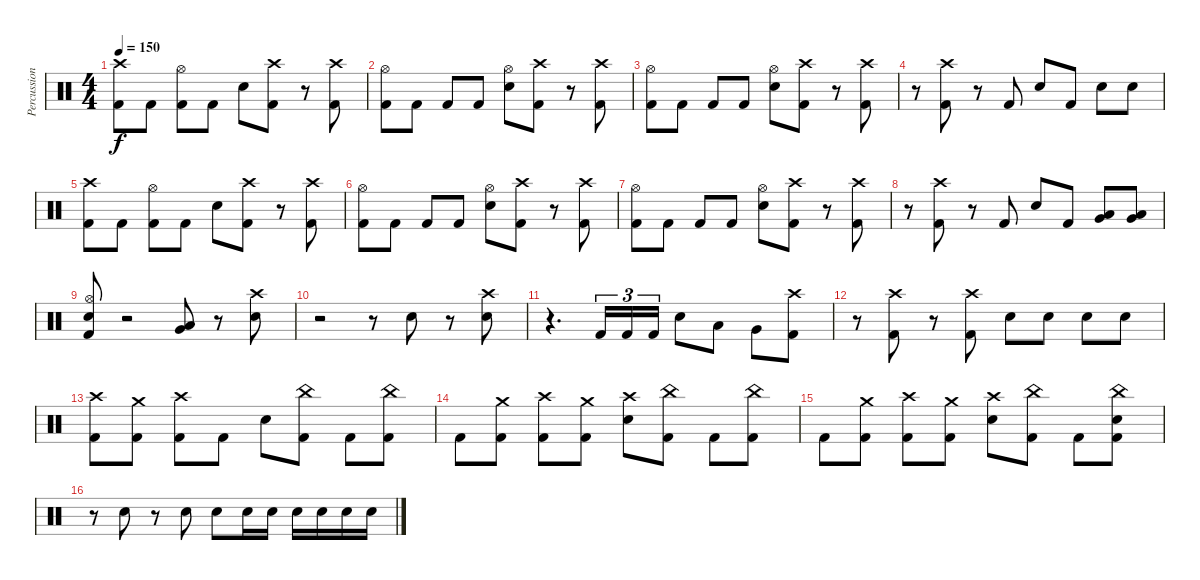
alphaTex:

\track ("Percussion" "Percussion") {instrument percussion}
\staff {score}
\articulation defaults
\ts (4 4)
\tempo 150
\clef neutral
\ks c
("Crash high (hit)" "Kick (hit) 2").8{dy f} "Kick (hit) 2".8 ("Hi-Hat (open)" "Kick (hit) 2").8 "Kick (hit) 2".8 "Snare (hit) 2".8 ("Crash high (hit)" "Kick (hit) 2").8 r.8 ("Crash high (hit)" "Kick (hit) 2").8 |
("Hi-Hat (open)" "Kick (hit) 2").8 "Kick (hit) 2".8 "Kick (hit) 2".8 "Kick (hit) 2".8 ("Hi-Hat (open)" "Snare (hit) 2").8 ("Crash high (hit)" "Kick (hit) 2").8 r.8 ("Crash high (hit)" "Kick (hit) 2").8 |
("Hi-Hat (open)" "Kick (hit) 2").8 "Kick (hit) 2".8 "Kick (hit) 2".8 "Kick (hit) 2".8 ("Hi-Hat (open)" "Snare (hit) 2").8 ("Crash high (hit)" "Kick (hit) 2").8 r.8 ("Crash high (hit)" "Kick (hit) 2").8 |
r.8 ("Crash high (hit)" "Kick (hit) 2").8 r.8 "Kick (hit) 2".8 "Snare (hit) 2".8 "Kick (hit) 2".8 "Snare (hit) 2".8 "Snare (hit) 2".8 |
("Crash high (hit)" "Kick (hit) 2").8 "Kick (hit) 2".8 ("Hi-Hat (open)" "Kick (hit) 2").8 "Kick (hit) 2".8 "Snare (hit) 2".8 ("Crash high (hit)" "Kick (hit) 2").8 r.8 ("Crash high (hit)" "Kick (hit) 2").8 |
("Hi-Hat (open)" "Kick (hit) 2").8 "Kick (hit) 2".8 "Kick (hit) 2".8 "Kick (hit) 2".8 ("Hi-Hat (open)" "Snare (hit) 2").8 ("Crash high (hit)" "Kick (hit) 2").8 r.8 ("Crash high (hit)" "Kick (hit) 2").8 |
("Hi-Hat (open)" "Kick (hit) 2").8 "Kick (hit) 2".8 "Kick (hit) 2".8 "Kick (hit) 2".8 ("Hi-Hat (open)" "Snare (hit) 2").8 ("Crash high (hit)" "Kick (hit) 2").8 r.8 ("Crash high (hit)" "Kick (hit) 2").8 |
r.8 ("Crash high (hit)" "Kick (hit) 2").8 r.8 "Kick (hit) 2".8 "Snare (hit) 2".8 "Kick (hit) 2".8 ("Low Tom (hit)" "Very Low Tom (hit)").8 ("Very Low Tom (hit)" "Low Floor Tom (hit)").8 |
("Hi-Hat (open)" "Snare (hit) 2" "Kick (hit) 2").8 r.2 ("Low Tom (hit)" "Very Low Tom (hit)").8 r.8 ("Crash high (hit)" "Snare (hit) 2").8 |
r.2 r.8 "Snare (hit) 2".8 r.8 ("Crash high (hit)" "Snare (hit) 2").8 |
r.4{d} "Kick (hit) 2".16{tu (3 2)} "Kick (hit) 2".16{tu (3 2)} "Kick (hit) 2".16{tu (3 2)} "Snare (hit) 2".8 "Low Tom (hit)".8 "Very Low Tom (hit)".8 ("Crash high (hit)" "Kick (hit) 2").8 |
r.8 ("Crash high (hit)" "Kick (hit) 2").8 r.8 ("Crash high (hit)" "Kick (hit) 2").8 "Snare (hit) 2".8 "Snare (hit) 2".8 "Snare (hit) 2".8 "Snare (hit) 2".8 |
("Crash high (hit)" "Kick (hit) 2").8 ("Crash medium (hit)" "Kick (hit) 2").8 ("Crash high (hit)" "Kick (hit) 2").8 "Kick (hit) 2".8 "Snare (hit) 2".8 ("China (hit)" "Kick (hit) 2").8 "Kick (hit) 2".8 ("China (hit)" "Kick (hit) 2").8 |
"Kick (hit) 2".8 ("Crash medium (hit)" "Kick (hit) 2").8 ("Crash high (hit)" "Kick (hit) 2").8 ("Crash medium (hit)" "Kick (hit) 2").8 ("Crash high (hit)" "Snare (hit) 2").8 ("China (hit)" "Kick (hit) 2").8 "Kick (hit) 2".8 ("China (hit)" "Kick (hit) 2").8 |
"Kick (hit) 2".8 ("Crash medium (hit)" "Kick (hit) 2").8 ("Crash high (hit)" "Kick (hit) 2").8 ("Crash medium (hit)" "Kick (hit) 2").8 ("Crash high (hit)" "Snare (hit) 2").8 ("China (hit)" "Kick (hit) 2").8 "Kick (hit) 2".8 ("China (hit)" "Snare (hit) 2" "Kick (hit) 2").8 |
r.8 "Snare (hit) 2".8 r.8 "Snare (hit) 2".8 "Snare (hit) 2".8 "Snare (hit) 2".16 "Snare (hit) 2".16 "Snare (hit) 2".16 "Snare (hit) 2".16 "Snare (hit) 2".16 "Snare (hit) 2".16
